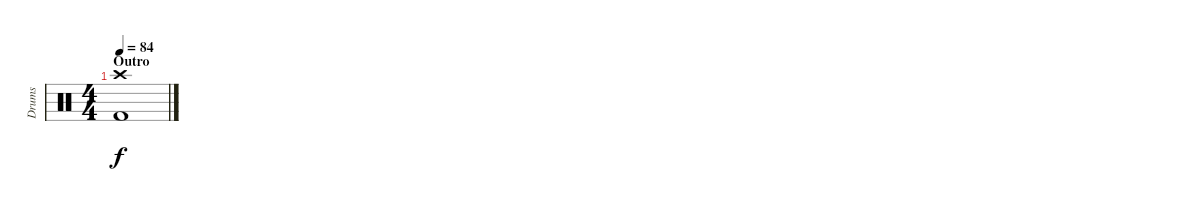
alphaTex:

\track ("Drums" "Drums") {instrument percussion}
\staff {score}
\articulation defaults
\ts (4 4)
\section ("" "Outro")
\tempo 84
\clef neutral
\ks c
("Crash high (hit)" "Kick (hit) 2").1{dy f}
